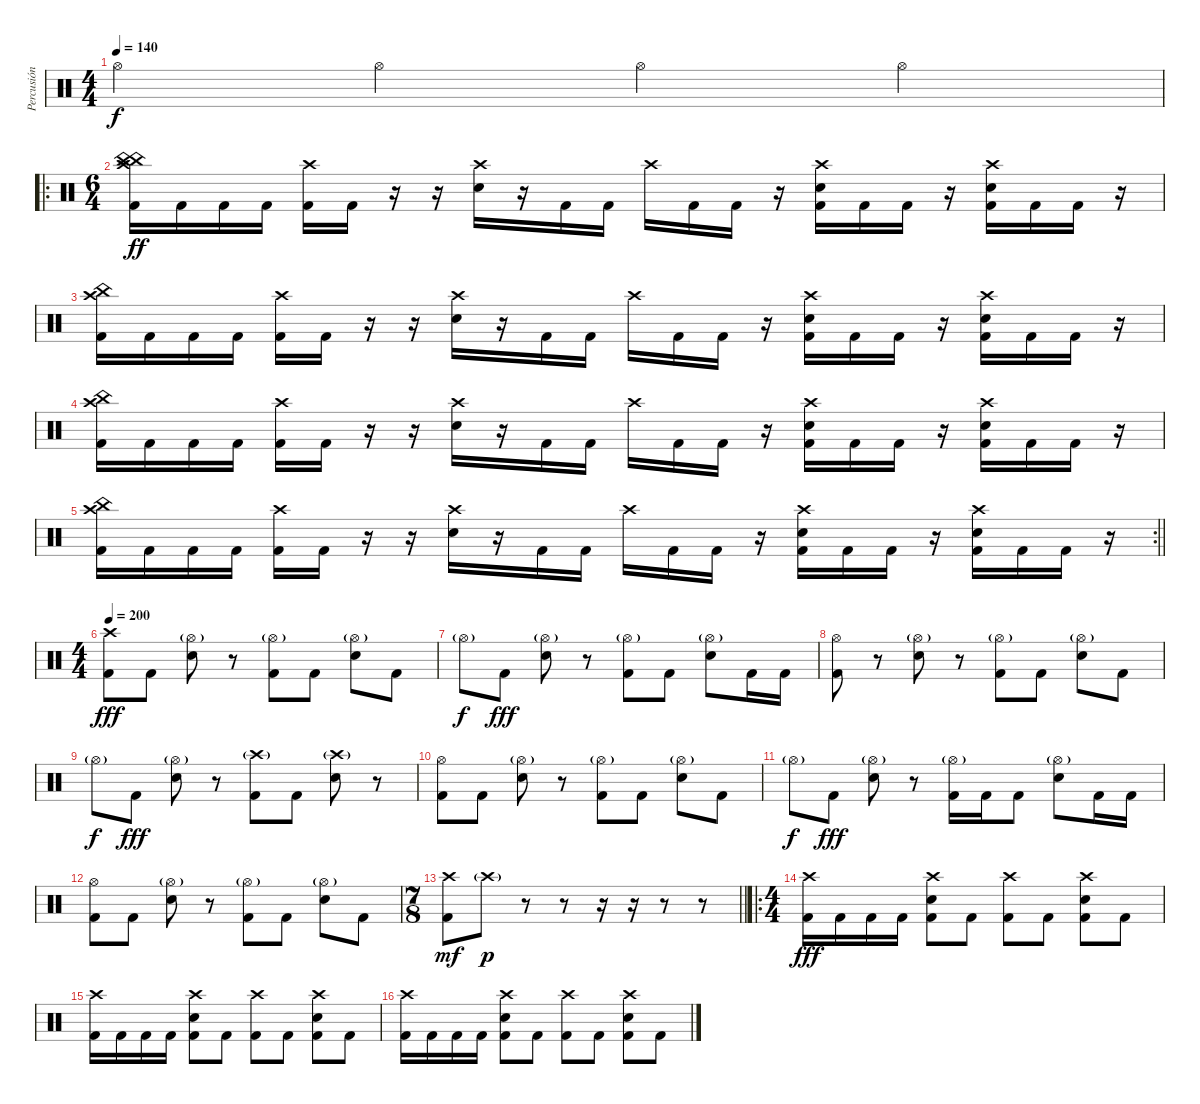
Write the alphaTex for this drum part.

\track ("Percusión" "Percusión") {instrument percussion}
\staff {score}
\articulation defaults
\ts (4 4)
\tempo 140
\clef neutral
\ks c "Hi-Hat (open)".4{dy f} "Hi-Hat (open)".4 "Hi-Hat (open)".4 "Hi-Hat (open)".4
|
\ro
\ts (6 4)
("China (hit)" "Crash high (hit)" "China (hit)" "Kick (hit) 2").16{dy ff} "Kick (hit) 2".16 "Kick (hit) 2".16 "Kick (hit) 2".16 ("Crash high (hit)" "Kick (hit) 2").16 "Kick (hit) 2".16 r.16 r.16 ("Crash high (hit)" "Snare (hit) 2").16 r.16 "Kick (hit) 2".16 "Kick (hit) 2".16 "Crash high (hit)".16 "Kick (hit) 2".16 "Kick (hit) 2".16 r.16 ("Crash high (hit)" "Snare (hit) 2" "Kick (hit) 2").16 "Kick (hit) 2".16 "Kick (hit) 2".16 r.16 ("Crash high (hit)" "Snare (hit) 2" "Kick (hit) 2").16 "Kick (hit) 2".16 "Kick (hit) 2".16 r.16 |
("China (hit)" "Crash high (hit)" "Kick (hit) 2").16 "Kick (hit) 2".16 "Kick (hit) 2".16 "Kick (hit) 2".16 ("Crash high (hit)" "Kick (hit) 2").16 "Kick (hit) 2".16 r.16 r.16 ("Crash high (hit)" "Snare (hit) 2").16 r.16 "Kick (hit) 2".16 "Kick (hit) 2".16 "Crash high (hit)".16 "Kick (hit) 2".16 "Kick (hit) 2".16 r.16 ("Crash high (hit)" "Snare (hit) 2" "Kick (hit) 2").16 "Kick (hit) 2".16 "Kick (hit) 2".16 r.16 ("Crash high (hit)" "Snare (hit) 2" "Kick (hit) 2").16 "Kick (hit) 2".16 "Kick (hit) 2".16 r.16 |
("China (hit)" "Crash high (hit)" "Kick (hit) 2").16 "Kick (hit) 2".16 "Kick (hit) 2".16 "Kick (hit) 2".16 ("Crash high (hit)" "Kick (hit) 2").16 "Kick (hit) 2".16 r.16 r.16 ("Crash high (hit)" "Snare (hit) 2").16 r.16 "Kick (hit) 2".16 "Kick (hit) 2".16 "Crash high (hit)".16 "Kick (hit) 2".16 "Kick (hit) 2".16 r.16 ("Crash high (hit)" "Snare (hit) 2" "Kick (hit) 2").16 "Kick (hit) 2".16 "Kick (hit) 2".16 r.16 ("Crash high (hit)" "Snare (hit) 2" "Kick (hit) 2").16 "Kick (hit) 2".16 "Kick (hit) 2".16 r.16 |
\rc 2
\barLineRight lightlight
("China (hit)" "Crash high (hit)" "Kick (hit) 2").16 "Kick (hit) 2".16 "Kick (hit) 2".16 "Kick (hit) 2".16 ("Crash high (hit)" "Kick (hit) 2").16 "Kick (hit) 2".16 r.16 r.16 ("Crash high (hit)" "Snare (hit) 2").16 r.16 "Kick (hit) 2".16 "Kick (hit) 2".16 "Crash high (hit)".16 "Kick (hit) 2".16 "Kick (hit) 2".16 r.16 ("Crash high (hit)" "Snare (hit) 2" "Kick (hit) 2").16 "Kick (hit) 2".16 "Kick (hit) 2".16 r.16 ("Crash high (hit)" "Snare (hit) 2" "Kick (hit) 2").16 "Kick (hit) 2".16 "Kick (hit) 2".16 r.16 |
\ts (4 4)
\section ("" "")
\tempo 200
("Crash high (hit)" "Kick (hit) 2").8{dy fff} "Kick (hit) 2".8 ("Hi-Hat (open)"{g} "Snare (hit) 2").8 r.8 ("Hi-Hat (open)"{g} "Kick (hit) 2").8 "Kick (hit) 2".8 ("Hi-Hat (open)"{g} "Snare (hit) 2").8 "Kick (hit) 2".8 |
"Hi-Hat (open)"{g}.8{dy f} "Kick (hit) 2".8{dy fff} ("Hi-Hat (open)"{g} "Snare (hit) 2").8 r.8 ("Hi-Hat (open)"{g} "Kick (hit) 2").8 "Kick (hit) 2".8 ("Hi-Hat (open)"{g} "Snare (hit) 2").8 "Kick (hit) 2".16 "Kick (hit) 2".16 |
("Hi-Hat (open)" "Kick (hit) 2").8 r.8 ("Hi-Hat (open)"{g} "Snare (hit) 2").8 r.8 ("Hi-Hat (open)"{g} "Kick (hit) 2").8 "Kick (hit) 2".8 ("Hi-Hat (open)"{g} "Snare (hit) 2").8 "Kick (hit) 2".8 |
"Hi-Hat (open)"{g}.8{dy f} "Kick (hit) 2".8{dy fff} ("Hi-Hat (open)"{g} "Snare (hit) 2").8 r.8 ("Crash high (hit)"{g} "Kick (hit) 2").8 "Kick (hit) 2".8 ("Crash high (hit)"{g} "Snare (hit) 2").8 r.8 |
("Hi-Hat (open)" "Kick (hit) 2").8 "Kick (hit) 2".8 ("Hi-Hat (open)"{g} "Snare (hit) 2").8 r.8 ("Hi-Hat (open)"{g} "Kick (hit) 2").8 "Kick (hit) 2".8 ("Hi-Hat (open)"{g} "Snare (hit) 2").8 "Kick (hit) 2".8 |
"Hi-Hat (open)"{g}.8{dy f} "Kick (hit) 2".8{dy fff} ("Hi-Hat (open)"{g} "Snare (hit) 2").8 r.8 ("Hi-Hat (open)"{g} "Kick (hit) 2").16 "Kick (hit) 2".16 "Kick (hit) 2".8 ("Hi-Hat (open)"{g} "Snare (hit) 2").8 "Kick (hit) 2".16 "Kick (hit) 2".16 |
("Hi-Hat (open)" "Kick (hit) 2").8 "Kick (hit) 2".8 ("Hi-Hat (open)"{g} "Snare (hit) 2").8 r.8 ("Hi-Hat (open)"{g} "Kick (hit) 2").8 "Kick (hit) 2".8 ("Hi-Hat (open)"{g} "Snare (hit) 2").8 "Kick (hit) 2".8 |
\ts (7 8)
\barLineRight lightlight
("Crash high (hit)" "Kick (hit) 2").8{dy mf} "Crash high (hit)"{g}.8{dy p} r.8 r.8 r.16 r.16 r.8 r.8 |
\ro
\ts (4 4)
("Crash high (hit)" "Kick (hit) 2").16{dy fff} "Kick (hit) 2".16 "Kick (hit) 2".16 "Kick (hit) 2".16 ("Crash high (hit)" "Snare (hit) 2" "Kick (hit) 2").8 "Kick (hit) 2".8 ("Crash high (hit)" "Kick (hit) 2").8 "Kick (hit) 2".8 ("Crash high (hit)" "Snare (hit) 2" "Kick (hit) 2").8 "Kick (hit) 2".8 |
("Crash high (hit)" "Kick (hit) 2").16 "Kick (hit) 2".16 "Kick (hit) 2".16 "Kick (hit) 2".16 ("Crash high (hit)" "Snare (hit) 2" "Kick (hit) 2").8 "Kick (hit) 2".8 ("Crash high (hit)" "Kick (hit) 2").8 "Kick (hit) 2".8 ("Crash high (hit)" "Snare (hit) 2" "Kick (hit) 2").8 "Kick (hit) 2".8 |
("Crash high (hit)" "Kick (hit) 2").16 "Kick (hit) 2".16 "Kick (hit) 2".16 "Kick (hit) 2".16 ("Crash high (hit)" "Snare (hit) 2" "Kick (hit) 2").8 "Kick (hit) 2".8 ("Crash high (hit)" "Kick (hit) 2").8 "Kick (hit) 2".8 ("Crash high (hit)" "Snare (hit) 2" "Kick (hit) 2").8 "Kick (hit) 2".8
